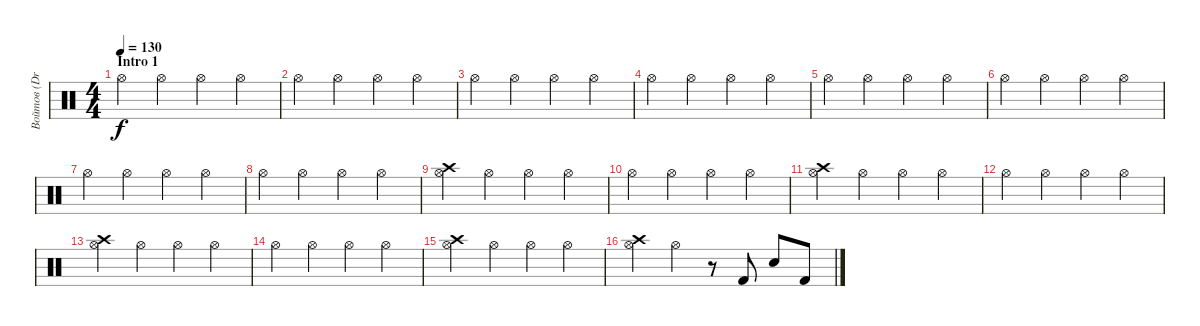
\track ("Войтов (Drums)" "Войтов (Dr") {instrument percussion}
\staff {score}
\articulation defaults
\ts (4 4)
\section ("" "Intro 1")
\tempo 130
\clef neutral
\ks c "Hi-Hat (open)".4{dy f} "Hi-Hat (open)".4 "Hi-Hat (open)".4 "Hi-Hat (open)".4
|
"Hi-Hat (open)".4 "Hi-Hat (open)".4 "Hi-Hat (open)".4 "Hi-Hat (open)".4 |
"Hi-Hat (open)".4 "Hi-Hat (open)".4 "Hi-Hat (open)".4 "Hi-Hat (open)".4 |
"Hi-Hat (open)".4 "Hi-Hat (open)".4 "Hi-Hat (open)".4 "Hi-Hat (open)".4 |
"Hi-Hat (open)".4 "Hi-Hat (open)".4 "Hi-Hat (open)".4 "Hi-Hat (open)".4 |
"Hi-Hat (open)".4 "Hi-Hat (open)".4 "Hi-Hat (open)".4 "Hi-Hat (open)".4 |
"Hi-Hat (open)".4 "Hi-Hat (open)".4 "Hi-Hat (open)".4 "Hi-Hat (open)".4 |
"Hi-Hat (open)".4 "Hi-Hat (open)".4 "Hi-Hat (open)".4 "Hi-Hat (open)".4 |
("Crash high (hit)" "Hi-Hat (open)").4 "Hi-Hat (open)".4 "Hi-Hat (open)".4 "Hi-Hat (open)".4 |
"Hi-Hat (open)".4 "Hi-Hat (open)".4 "Hi-Hat (open)".4 "Hi-Hat (open)".4 |
("Crash high (hit)" "Hi-Hat (open)").4 "Hi-Hat (open)".4 "Hi-Hat (open)".4 "Hi-Hat (open)".4 |
"Hi-Hat (open)".4 "Hi-Hat (open)".4 "Hi-Hat (open)".4 "Hi-Hat (open)".4 |
("Crash high (hit)" "Hi-Hat (open)").4 "Hi-Hat (open)".4 "Hi-Hat (open)".4 "Hi-Hat (open)".4 |
"Hi-Hat (open)".4 "Hi-Hat (open)".4 "Hi-Hat (open)".4 "Hi-Hat (open)".4 |
("Crash high (hit)" "Hi-Hat (open)").4 "Hi-Hat (open)".4 "Hi-Hat (open)".4 "Hi-Hat (open)".4 |
("Crash high (hit)" "Hi-Hat (open)").4 "Hi-Hat (open)".4 r.8 "Kick (hit) 2".8 "Electric Snare (hit)".8 "Kick (hit) 2".8
